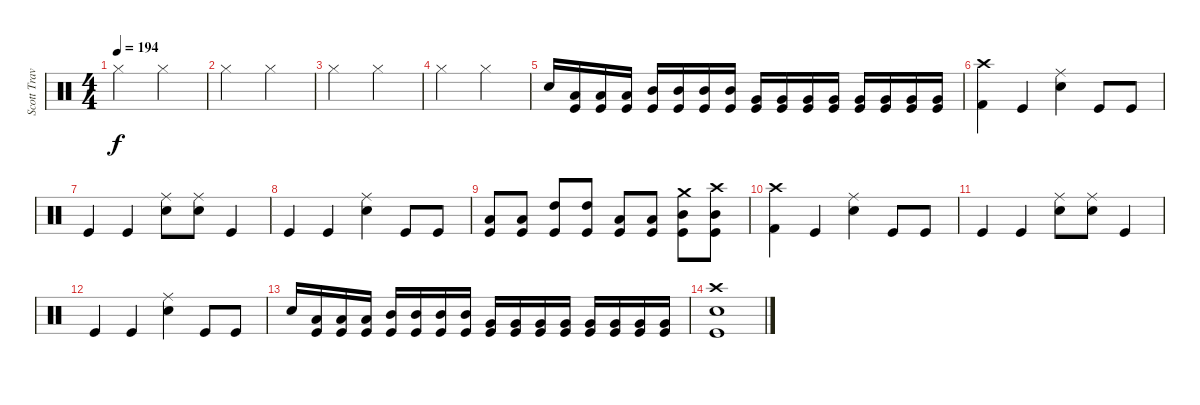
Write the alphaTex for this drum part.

\track ("Scott Travis" "Scott Trav") {instrument percussion}
\staff {score}
\articulation defaults
\ts (4 4)
\tempo 194
\clef neutral
\ks c "Hi-Hat (closed)".2{dy f} "Hi-Hat (closed)".2
|
"Hi-Hat (closed)".2 "Hi-Hat (closed)".2 |
"Hi-Hat (closed)".2 "Hi-Hat (closed)".2 |
"Hi-Hat (closed)".2 "Hi-Hat (closed)".2 |
"Snare (hit) 2".16 ("Low Tom (hit)" "Kick (hit)").16 ("Low Tom (hit)" "Kick (hit)").16 ("Low Tom (hit)" "Kick (hit)").16 ("Mid Tom (hit)" "Kick (hit)").16 ("Mid Tom (hit)" "Kick (hit)").16 ("Mid Tom (hit)" "Kick (hit)").16 ("Mid Tom (hit)" "Kick (hit)").16 ("Very Low Tom (hit)" "Kick (hit)").16 ("Very Low Tom (hit)" "Kick (hit)").16 ("Very Low Tom (hit)" "Kick (hit)").16 ("Very Low Tom (hit)" "Kick (hit)").16 ("Very Low Tom (hit)" "Kick (hit)").16 ("Very Low Tom (hit)" "Kick (hit)").16 ("Very Low Tom (hit)" "Kick (hit)").16 ("Very Low Tom (hit)" "Kick (hit)").16 |
("Kick (hit) 2" "Crash high (hit)").4 "Kick (hit)".4 ("Snare (hit) 2" "Ride (middle)").4 "Kick (hit)".8 "Kick (hit)".8 |
"Kick (hit)".4 "Kick (hit)".4 ("Snare (hit) 2" "Ride (middle)").8 ("Snare (hit) 2" "Ride (middle)").8 "Kick (hit)".4 |
"Kick (hit)".4 "Kick (hit)".4 ("Snare (hit) 2" "Ride (middle)").4 "Kick (hit)".8 "Kick (hit)".8 |
("Low Tom (hit)" "Kick (hit)").8 ("Low Tom (hit)" "Kick (hit)").8 ("High Tom (hit)" "Kick (hit)").8 ("High Tom (hit)" "Kick (hit)").8 ("Low Tom (hit)" "Kick (hit)").8 ("Low Tom (hit)" "Kick (hit)").8 ("Mid Tom (hit)" "Crash medium (hit)" "Kick (hit)").8 ("Mid Tom (hit)" "Crash high (hit)" "Kick (hit)").8 |
("Kick (hit) 2" "Crash high (hit)").4 "Kick (hit)".4 ("Snare (hit) 2" "Ride (middle)").4 "Kick (hit)".8 "Kick (hit)".8 |
"Kick (hit)".4 "Kick (hit)".4 ("Snare (hit) 2" "Ride (middle)").8 ("Snare (hit) 2" "Ride (middle)").8 "Kick (hit)".4 |
"Kick (hit)".4 "Kick (hit)".4 ("Snare (hit) 2" "Ride (middle)").4 "Kick (hit)".8 "Kick (hit)".8 |
"Snare (hit) 2".16 ("Low Tom (hit)" "Kick (hit)").16 ("Low Tom (hit)" "Kick (hit)").16 ("Low Tom (hit)" "Kick (hit)").16 ("Mid Tom (hit)" "Kick (hit)").16 ("Mid Tom (hit)" "Kick (hit)").16 ("Mid Tom (hit)" "Kick (hit)").16 ("Mid Tom (hit)" "Kick (hit)").16 ("Very Low Tom (hit)" "Kick (hit)").16 ("Very Low Tom (hit)" "Kick (hit)").16 ("Very Low Tom (hit)" "Kick (hit)").16 ("Very Low Tom (hit)" "Kick (hit)").16 ("Very Low Tom (hit)" "Kick (hit)").16 ("Very Low Tom (hit)" "Kick (hit)").16 ("Very Low Tom (hit)" "Kick (hit)").16 ("Very Low Tom (hit)" "Kick (hit)").16 |
("Crash high (hit)" "Snare (hit) 2" "Kick (hit)").1
